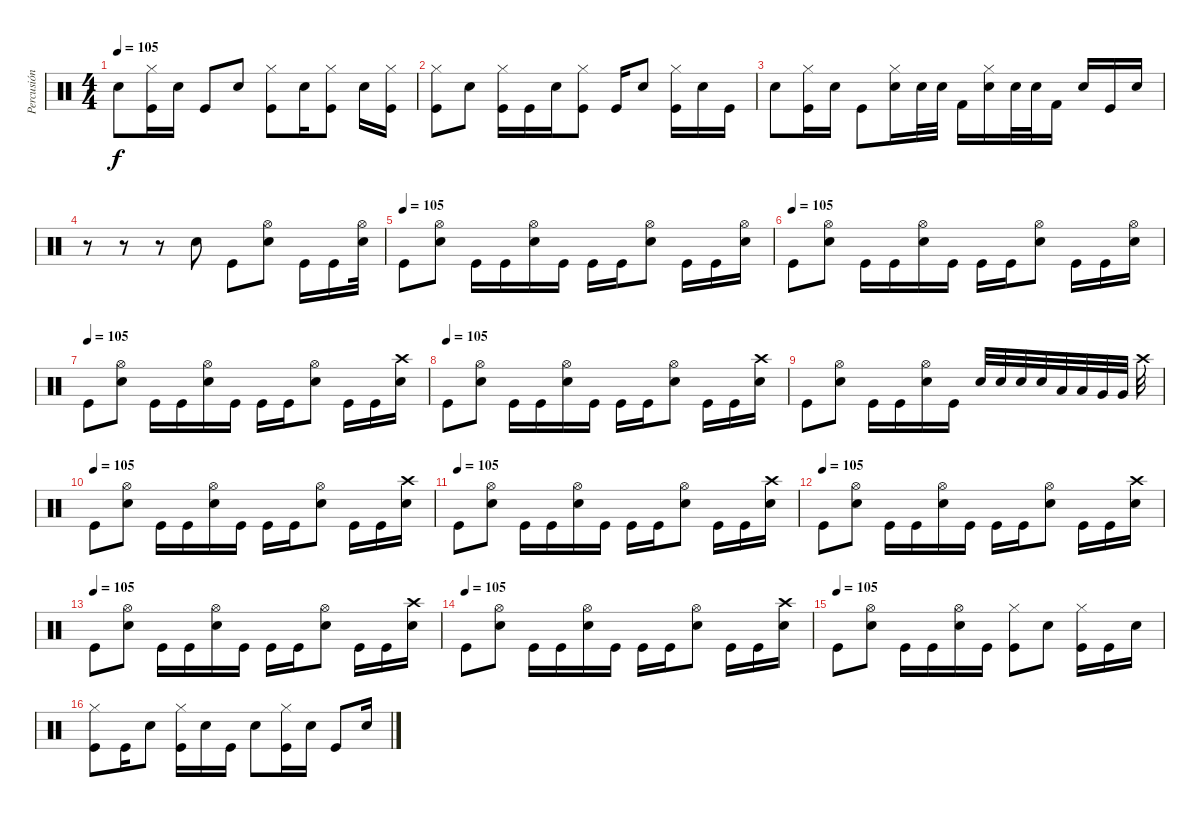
\track ("Percusión" "Percusión") {instrument percussion}
\staff {score}
\articulation defaults
\ts (4 4)
\tempo 105
\clef neutral
\ks c "Electric Snare (hit)".8{dy f}
("Kick (hit)" "Hi-Hat (closed)").16 "Electric Snare (hit)".16 "Kick (hit)".8 "Electric Snare (hit)".8 ("Kick (hit)" "Hi-Hat (closed)").8 "Electric Snare (hit)".16 ("Kick (hit)" "Hi-Hat (closed)").8 "Electric Snare (hit)".16 ("Kick (hit)" "Hi-Hat (closed)").16 |
("Kick (hit)" "Hi-Hat (closed)").8 "Electric Snare (hit)".8 ("Kick (hit)" "Hi-Hat (closed)").16 "Kick (hit)".16 "Electric Snare (hit)".16 ("Kick (hit)" "Hi-Hat (closed)").8 "Kick (hit)".16 "Electric Snare (hit)".8 ("Kick (hit)" "Hi-Hat (closed)").16 "Electric Snare (hit)".16 "Kick (hit)".16 |
"Electric Snare (hit)".8 ("Kick (hit)" "Hi-Hat (closed)").16 "Electric Snare (hit)".16 "Kick (hit)".8 ("Electric Snare (hit)" "Hi-Hat (closed)").16 "Electric Snare (hit)".32 "Electric Snare (hit)".32 "Kick (hit) 2".16 ("Electric Snare (hit)" "Hi-Hat (closed)").16 "Electric Snare (hit)".32 "Electric Snare (hit)".32 "Kick (hit) 2".16 "Electric Snare (hit)".16 "Kick (hit)".16 "Electric Snare (hit)".16 |
r.8 r.8 r.8 "Electric Snare (hit)".8 "Kick (hit)".8 ("Electric Snare (hit)" "Hi-Hat (open)").8 "Kick (hit)".16 "Kick (hit)".16 ("Electric Snare (hit)" "Hi-Hat (open)").32 |
\tempo (105)
"Kick (hit)".8 ("Electric Snare (hit)" "Hi-Hat (open)").8 "Kick (hit)".16 "Kick (hit)".16 ("Electric Snare (hit)" "Hi-Hat (open)").16 "Kick (hit)".16 "Kick (hit)".16 "Kick (hit)".16 ("Electric Snare (hit)" "Hi-Hat (open)").8 "Kick (hit)".16 "Kick (hit)".16 ("Electric Snare (hit)" "Hi-Hat (open)").16 |
\tempo (105)
"Kick (hit)".8 ("Electric Snare (hit)" "Hi-Hat (open)").8 "Kick (hit)".16 "Kick (hit)".16 ("Electric Snare (hit)" "Hi-Hat (open)").16 "Kick (hit)".16 "Kick (hit)".16 "Kick (hit)".16 ("Electric Snare (hit)" "Hi-Hat (open)").8 "Kick (hit)".16 "Kick (hit)".16 ("Electric Snare (hit)" "Hi-Hat (open)").16 |
\tempo (105)
"Kick (hit)".8 ("Electric Snare (hit)" "Hi-Hat (open)").8 "Kick (hit)".16 "Kick (hit)".16 ("Electric Snare (hit)" "Hi-Hat (open)").16 "Kick (hit)".16 "Kick (hit)".16 "Kick (hit)".16 ("Electric Snare (hit)" "Hi-Hat (open)").8 "Kick (hit)".16 "Kick (hit)".16 ("Electric Snare (hit)" "Crash high (hit)").16 |
\tempo (105)
"Kick (hit)".8 ("Electric Snare (hit)" "Hi-Hat (open)").8 "Kick (hit)".16 "Kick (hit)".16 ("Electric Snare (hit)" "Hi-Hat (open)").16 "Kick (hit)".16 "Kick (hit)".16 "Kick (hit)".16 ("Electric Snare (hit)" "Hi-Hat (open)").8 "Kick (hit)".16 "Kick (hit)".16 ("Electric Snare (hit)" "Crash high (hit)").16 |
"Kick (hit)".8 ("Electric Snare (hit)" "Hi-Hat (open)").8 "Kick (hit)".16 "Kick (hit)".16 ("Electric Snare (hit)" "Hi-Hat (open)").16 "Kick (hit)".16 "Electric Snare (hit)".32 "Electric Snare (hit)".32 "Electric Snare (hit)".32 "Electric Snare (hit)".32 "Low Floor Tom (hit)".32 "Low Floor Tom (hit)".32 "Very Low Tom (hit)".32 "Very Low Tom (hit)".32 "Crash high (hit)".32 |
\tempo (105)
"Kick (hit)".8 ("Electric Snare (hit)" "Hi-Hat (open)").8 "Kick (hit)".16 "Kick (hit)".16 ("Electric Snare (hit)" "Hi-Hat (open)").16 "Kick (hit)".16 "Kick (hit)".16 "Kick (hit)".16 ("Electric Snare (hit)" "Hi-Hat (open)").8 "Kick (hit)".16 "Kick (hit)".16 ("Electric Snare (hit)" "Crash high (hit)").16 |
\tempo (105)
"Kick (hit)".8 ("Electric Snare (hit)" "Hi-Hat (open)").8 "Kick (hit)".16 "Kick (hit)".16 ("Electric Snare (hit)" "Hi-Hat (open)").16 "Kick (hit)".16 "Kick (hit)".16 "Kick (hit)".16 ("Electric Snare (hit)" "Hi-Hat (open)").8 "Kick (hit)".16 "Kick (hit)".16 ("Electric Snare (hit)" "Crash high (hit)").16 |
\tempo (105)
"Kick (hit)".8 ("Electric Snare (hit)" "Hi-Hat (open)").8 "Kick (hit)".16 "Kick (hit)".16 ("Electric Snare (hit)" "Hi-Hat (open)").16 "Kick (hit)".16 "Kick (hit)".16 "Kick (hit)".16 ("Electric Snare (hit)" "Hi-Hat (open)").8 "Kick (hit)".16 "Kick (hit)".16 ("Electric Snare (hit)" "Crash high (hit)").16 |
\tempo (105)
"Kick (hit)".8 ("Electric Snare (hit)" "Hi-Hat (open)").8 "Kick (hit)".16 "Kick (hit)".16 ("Electric Snare (hit)" "Hi-Hat (open)").16 "Kick (hit)".16 "Kick (hit)".16 "Kick (hit)".16 ("Electric Snare (hit)" "Hi-Hat (open)").8 "Kick (hit)".16 "Kick (hit)".16 ("Electric Snare (hit)" "Crash high (hit)").16 |
\tempo (105)
"Kick (hit)".8 ("Electric Snare (hit)" "Hi-Hat (open)").8 "Kick (hit)".16 "Kick (hit)".16 ("Electric Snare (hit)" "Hi-Hat (open)").16 "Kick (hit)".16 "Kick (hit)".16 "Kick (hit)".16 ("Electric Snare (hit)" "Hi-Hat (open)").8 "Kick (hit)".16 "Kick (hit)".16 ("Electric Snare (hit)" "Crash high (hit)").16 |
\tempo (105)
"Kick (hit)".8 ("Electric Snare (hit)" "Hi-Hat (open)").8 "Kick (hit)".16 "Kick (hit)".16 ("Electric Snare (hit)" "Hi-Hat (open)").16 "Kick (hit)".16 ("Kick (hit)" "Hi-Hat (closed)").8 "Electric Snare (hit)".8 ("Kick (hit)" "Hi-Hat (closed)").16 "Kick (hit)".16 "Electric Snare (hit)".16 |
("Kick (hit)" "Hi-Hat (closed)").8 "Kick (hit)".16 "Electric Snare (hit)".8 ("Kick (hit)" "Hi-Hat (closed)").16 "Electric Snare (hit)".16 "Kick (hit)".16 "Electric Snare (hit)".8 ("Kick (hit)" "Hi-Hat (closed)").16 "Electric Snare (hit)".16 "Kick (hit)".8 "Electric Snare (hit)".16
